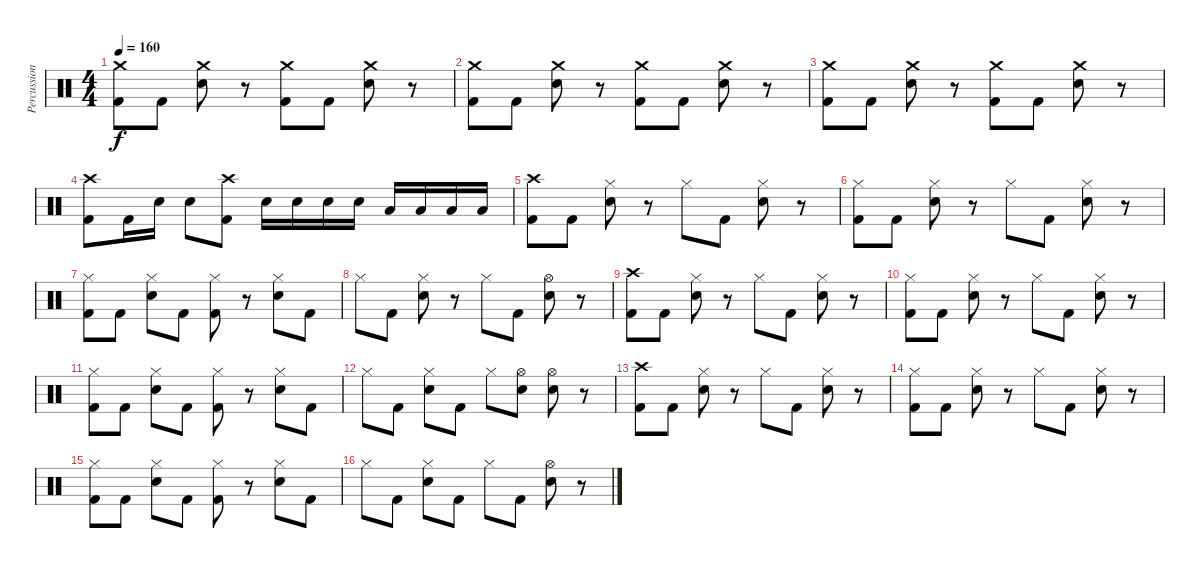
\track ("Percussion" "Percussion") {instrument percussion}
\staff {score}
\articulation defaults
\ts (4 4)
\tempo 160
\clef neutral
\ks c
("Crash medium (hit)" "Kick (hit) 2").8{dy f} "Kick (hit) 2".8 ("Crash medium (hit)" "Electric Snare (hit)").8 r.8 ("Crash medium (hit)" "Kick (hit) 2").8 "Kick (hit) 2".8 ("Crash medium (hit)" "Electric Snare (hit)").8 r.8 |
("Crash medium (hit)" "Kick (hit) 2").8 "Kick (hit) 2".8 ("Crash medium (hit)" "Electric Snare (hit)").8 r.8 ("Crash medium (hit)" "Kick (hit) 2").8 "Kick (hit) 2".8 ("Crash medium (hit)" "Electric Snare (hit)").8 r.8 |
("Crash medium (hit)" "Kick (hit) 2").8 "Kick (hit) 2".8 ("Crash medium (hit)" "Electric Snare (hit)").8 r.8 ("Crash medium (hit)" "Kick (hit) 2").8 "Kick (hit) 2".8 ("Crash medium (hit)" "Electric Snare (hit)").8 r.8 |
("Crash high (hit)" "Kick (hit) 2").8 "Kick (hit) 2".16 "Electric Snare (hit)".16 "Electric Snare (hit)".8 ("Crash high (hit)" "Kick (hit) 2").8 "Electric Snare (hit)".16 "Electric Snare (hit)".16 "Electric Snare (hit)".16 "Electric Snare (hit)".16 "Low Tom (hit)".16 "Low Tom (hit)".16 "Low Tom (hit)".16 "Low Tom (hit)".16 |
("Crash high (hit)" "Kick (hit) 2").8 "Kick (hit) 2".8 ("Hi-Hat (closed)" "Electric Snare (hit)").8 r.8 "Hi-Hat (closed)".8 "Kick (hit) 2".8 ("Hi-Hat (closed)" "Electric Snare (hit)").8 r.8 |
("Hi-Hat (closed)" "Kick (hit) 2").8 "Kick (hit) 2".8 ("Hi-Hat (closed)" "Electric Snare (hit)").8 r.8 "Hi-Hat (closed)".8 "Kick (hit) 2".8 ("Hi-Hat (closed)" "Electric Snare (hit)").8 r.8 |
("Hi-Hat (closed)" "Kick (hit) 2").8 "Kick (hit) 2".8 ("Hi-Hat (closed)" "Electric Snare (hit)").8 "Kick (hit) 2".8 ("Hi-Hat (closed)" "Kick (hit) 2").8 r.8 ("Hi-Hat (closed)" "Electric Snare (hit)").8 "Kick (hit) 2".8 |
"Hi-Hat (closed)".8 "Kick (hit) 2".8 ("Hi-Hat (closed)" "Electric Snare (hit)").8 r.8 "Hi-Hat (closed)".8 "Kick (hit) 2".8 ("Hi-Hat (open)" "Electric Snare (hit)").8 r.8 |
("Crash high (hit)" "Kick (hit) 2").8 "Kick (hit) 2".8 ("Hi-Hat (closed)" "Electric Snare (hit)").8 r.8 "Hi-Hat (closed)".8 "Kick (hit) 2".8 ("Hi-Hat (closed)" "Electric Snare (hit)").8 r.8 |
("Hi-Hat (closed)" "Kick (hit) 2").8 "Kick (hit) 2".8 ("Hi-Hat (closed)" "Electric Snare (hit)").8 r.8 "Hi-Hat (closed)".8 "Kick (hit) 2".8 ("Hi-Hat (closed)" "Electric Snare (hit)").8 r.8 |
("Hi-Hat (closed)" "Kick (hit) 2").8 "Kick (hit) 2".8 ("Hi-Hat (closed)" "Electric Snare (hit)").8 "Kick (hit) 2".8 ("Hi-Hat (closed)" "Kick (hit) 2").8 r.8 ("Hi-Hat (closed)" "Electric Snare (hit)").8 "Kick (hit) 2".8 |
"Hi-Hat (closed)".8 "Kick (hit) 2".8 ("Hi-Hat (closed)" "Electric Snare (hit)").8 "Kick (hit) 2".8 "Hi-Hat (closed)".8 ("Hi-Hat (open)" "Electric Snare (hit)").8 ("Hi-Hat (open)" "Electric Snare (hit)").8 r.8 |
("Crash high (hit)" "Kick (hit) 2").8 "Kick (hit) 2".8 ("Hi-Hat (closed)" "Electric Snare (hit)").8 r.8 "Hi-Hat (closed)".8 "Kick (hit) 2".8 ("Hi-Hat (closed)" "Electric Snare (hit)").8 r.8 |
("Hi-Hat (closed)" "Kick (hit) 2").8 "Kick (hit) 2".8 ("Hi-Hat (closed)" "Electric Snare (hit)").8 r.8 "Hi-Hat (closed)".8 "Kick (hit) 2".8 ("Hi-Hat (closed)" "Electric Snare (hit)").8 r.8 |
("Hi-Hat (closed)" "Kick (hit) 2").8 "Kick (hit) 2".8 ("Hi-Hat (closed)" "Electric Snare (hit)").8 "Kick (hit) 2".8 ("Hi-Hat (closed)" "Kick (hit) 2").8 r.8 ("Hi-Hat (closed)" "Electric Snare (hit)").8 "Kick (hit) 2".8 |
"Hi-Hat (closed)".8 "Kick (hit) 2".8 ("Hi-Hat (closed)" "Electric Snare (hit)").8 "Kick (hit) 2".8 "Hi-Hat (closed)".8 "Kick (hit) 2".8 ("Hi-Hat (open)" "Electric Snare (hit)").8 r.8
